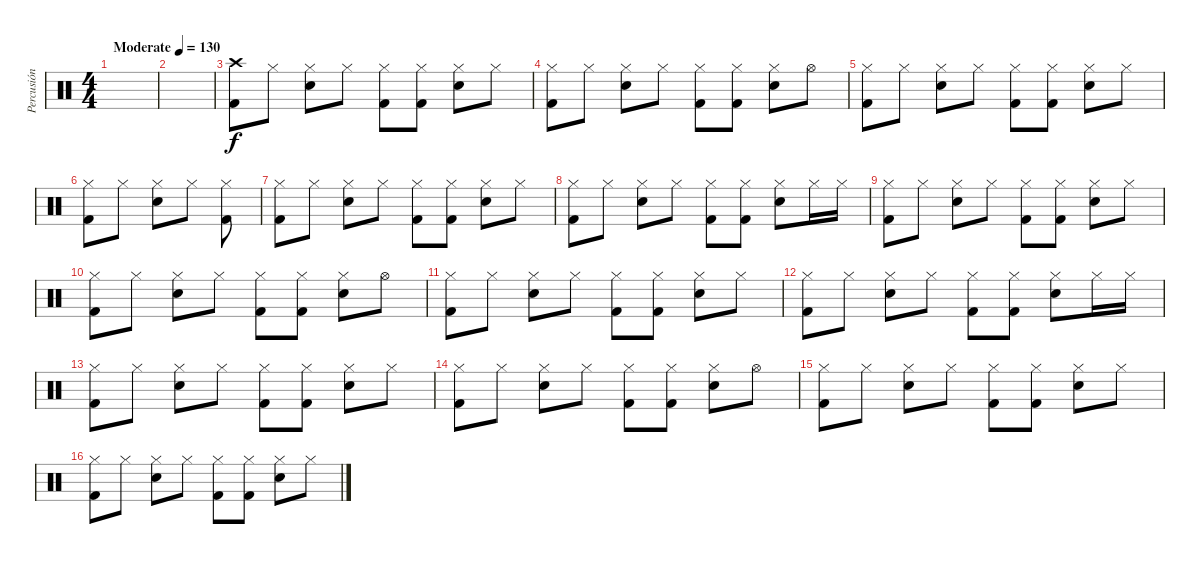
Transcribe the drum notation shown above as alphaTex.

\track ("Percusión" "Percusión") {instrument percussion}
\staff {score}
\articulation defaults
\ts (4 4)
\tempo (130 "Moderate")
\clef neutral
\ks c
|
|
("Kick (hit) 2" "Crash high (hit)").8 "Hi-Hat (closed)".8 ("Hi-Hat (closed)" "Electric Snare (hit)").8 "Hi-Hat (closed)".8 ("Hi-Hat (closed)" "Kick (hit) 2").8 ("Hi-Hat (closed)" "Kick (hit) 2").8 ("Hi-Hat (closed)" "Electric Snare (hit)").8 "Hi-Hat (closed)".8 |
("Hi-Hat (closed)" "Kick (hit) 2").8 "Hi-Hat (closed)".8 ("Hi-Hat (closed)" "Electric Snare (hit)").8 "Hi-Hat (closed)".8 ("Hi-Hat (closed)" "Kick (hit) 2").8 ("Hi-Hat (closed)" "Kick (hit) 2").8 ("Hi-Hat (closed)" "Electric Snare (hit)").8 "Hi-Hat (open)".8 |
("Hi-Hat (closed)" "Kick (hit) 2").8 "Hi-Hat (closed)".8 ("Hi-Hat (closed)" "Electric Snare (hit)").8 "Hi-Hat (closed)".8 ("Hi-Hat (closed)" "Kick (hit) 2").8 ("Hi-Hat (closed)" "Kick (hit) 2").8 ("Hi-Hat (closed)" "Electric Snare (hit)").8 "Hi-Hat (closed)".8 |
("Hi-Hat (closed)" "Kick (hit) 2").8 "Hi-Hat (closed)".8 ("Hi-Hat (closed)" "Electric Snare (hit)").8 "Hi-Hat (closed)".8 ("Hi-Hat (closed)" "Kick (hit) 2").8 |
("Hi-Hat (closed)" "Kick (hit) 2").8 "Hi-Hat (closed)".8 ("Hi-Hat (closed)" "Electric Snare (hit)").8 "Hi-Hat (closed)".8 ("Hi-Hat (closed)" "Kick (hit) 2").8 ("Hi-Hat (closed)" "Kick (hit) 2").8 ("Hi-Hat (closed)" "Electric Snare (hit)").8 "Hi-Hat (closed)".8 |
("Hi-Hat (closed)" "Kick (hit) 2").8 "Hi-Hat (closed)".8 ("Hi-Hat (closed)" "Electric Snare (hit)").8 "Hi-Hat (closed)".8 ("Hi-Hat (closed)" "Kick (hit) 2").8 ("Hi-Hat (closed)" "Kick (hit) 2").8 ("Hi-Hat (closed)" "Electric Snare (hit)").8 "Hi-Hat (closed)".16 "Hi-Hat (closed)".16 |
("Hi-Hat (closed)" "Kick (hit) 2").8 "Hi-Hat (closed)".8 ("Hi-Hat (closed)" "Electric Snare (hit)").8 "Hi-Hat (closed)".8 ("Hi-Hat (closed)" "Kick (hit) 2").8 ("Hi-Hat (closed)" "Kick (hit) 2").8 ("Hi-Hat (closed)" "Electric Snare (hit)").8 "Hi-Hat (closed)".8 |
("Hi-Hat (closed)" "Kick (hit) 2").8 "Hi-Hat (closed)".8 ("Hi-Hat (closed)" "Electric Snare (hit)").8 "Hi-Hat (closed)".8 ("Hi-Hat (closed)" "Kick (hit) 2").8 ("Hi-Hat (closed)" "Kick (hit) 2").8 ("Hi-Hat (closed)" "Electric Snare (hit)").8 "Hi-Hat (open)".8 |
("Hi-Hat (closed)" "Kick (hit) 2").8 "Hi-Hat (closed)".8 ("Hi-Hat (closed)" "Electric Snare (hit)").8 "Hi-Hat (closed)".8 ("Hi-Hat (closed)" "Kick (hit) 2").8 ("Hi-Hat (closed)" "Kick (hit) 2").8 ("Hi-Hat (closed)" "Electric Snare (hit)").8 "Hi-Hat (closed)".8 |
("Hi-Hat (closed)" "Kick (hit) 2").8 "Hi-Hat (closed)".8 ("Hi-Hat (closed)" "Electric Snare (hit)").8 "Hi-Hat (closed)".8 ("Hi-Hat (closed)" "Kick (hit) 2").8 ("Hi-Hat (closed)" "Kick (hit) 2").8 ("Hi-Hat (closed)" "Electric Snare (hit)").8 "Hi-Hat (closed)".16 "Hi-Hat (closed)".16 |
("Hi-Hat (closed)" "Kick (hit) 2").8 "Hi-Hat (closed)".8 ("Hi-Hat (closed)" "Electric Snare (hit)").8 "Hi-Hat (closed)".8 ("Hi-Hat (closed)" "Kick (hit) 2").8 ("Hi-Hat (closed)" "Kick (hit) 2").8 ("Hi-Hat (closed)" "Electric Snare (hit)").8 "Hi-Hat (closed)".8 |
("Hi-Hat (closed)" "Kick (hit) 2").8 "Hi-Hat (closed)".8 ("Hi-Hat (closed)" "Electric Snare (hit)").8 "Hi-Hat (closed)".8 ("Hi-Hat (closed)" "Kick (hit) 2").8 ("Hi-Hat (closed)" "Kick (hit) 2").8 ("Hi-Hat (closed)" "Electric Snare (hit)").8 "Hi-Hat (open)".8 |
("Hi-Hat (closed)" "Kick (hit) 2").8 "Hi-Hat (closed)".8 ("Hi-Hat (closed)" "Electric Snare (hit)").8 "Hi-Hat (closed)".8 ("Hi-Hat (closed)" "Kick (hit) 2").8 ("Hi-Hat (closed)" "Kick (hit) 2").8 ("Hi-Hat (closed)" "Electric Snare (hit)").8 "Hi-Hat (closed)".8 |
("Hi-Hat (closed)" "Kick (hit) 2").8 "Hi-Hat (closed)".8 ("Hi-Hat (closed)" "Electric Snare (hit)").8 "Hi-Hat (closed)".8 ("Hi-Hat (closed)" "Kick (hit) 2").8 ("Hi-Hat (closed)" "Kick (hit) 2").8 ("Hi-Hat (closed)" "Electric Snare (hit)").8 "Hi-Hat (closed)".8
